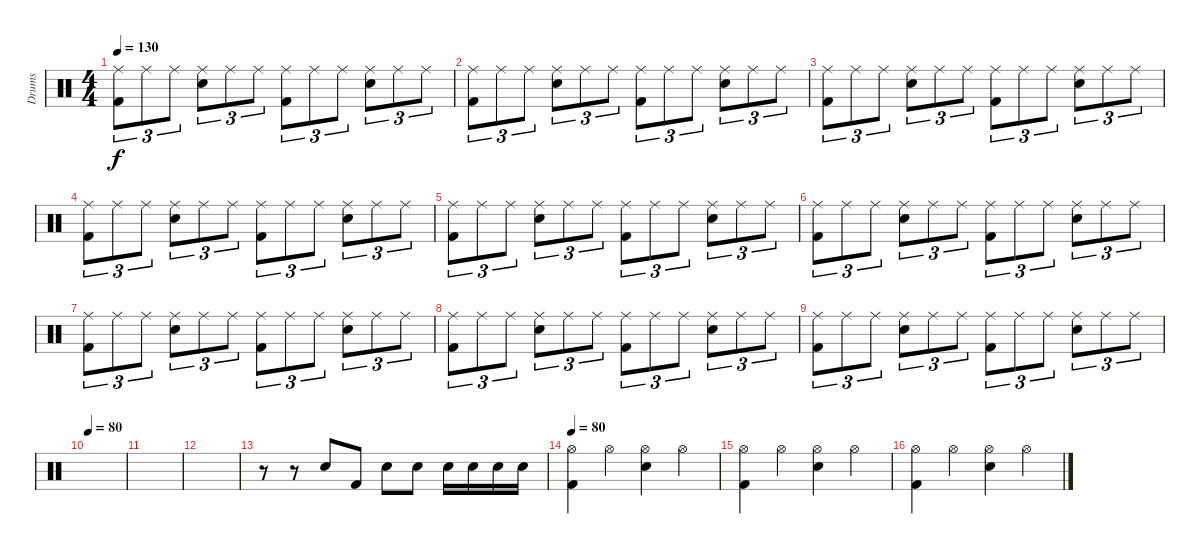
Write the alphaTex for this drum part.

\track ("Drums" "Drums") {instrument percussion}
\staff {score}
\articulation defaults
\ts (4 4)
\tempo 130
\clef neutral
\ks c
("Ride (middle)" "Kick (hit) 2").8{tu (3 2) dy f} "Ride (middle)".8{tu (3 2)} "Ride (middle)".8{tu (3 2)} ("Ride (middle)" "Electric Snare (hit)").8{tu (3 2)} "Ride (middle)".8{tu (3 2)} "Ride (middle)".8{tu (3 2)} ("Ride (middle)" "Kick (hit) 2").8{tu (3 2)} "Ride (middle)".8{tu (3 2)} "Ride (middle)".8{tu (3 2)} ("Ride (middle)" "Electric Snare (hit)").8{tu (3 2)} "Ride (middle)".8{tu (3 2)} "Ride (middle)".8{tu (3 2)} |
("Ride (middle)" "Kick (hit) 2").8{tu (3 2)} "Ride (middle)".8{tu (3 2)} "Ride (middle)".8{tu (3 2)} ("Ride (middle)" "Electric Snare (hit)").8{tu (3 2)} "Ride (middle)".8{tu (3 2)} "Ride (middle)".8{tu (3 2)} ("Ride (middle)" "Kick (hit) 2").8{tu (3 2)} "Ride (middle)".8{tu (3 2)} "Ride (middle)".8{tu (3 2)} ("Ride (middle)" "Electric Snare (hit)").8{tu (3 2)} "Ride (middle)".8{tu (3 2)} "Ride (middle)".8{tu (3 2)} |
("Ride (middle)" "Kick (hit) 2").8{tu (3 2)} "Ride (middle)".8{tu (3 2)} "Ride (middle)".8{tu (3 2)} ("Ride (middle)" "Electric Snare (hit)").8{tu (3 2)} "Ride (middle)".8{tu (3 2)} "Ride (middle)".8{tu (3 2)} ("Ride (middle)" "Kick (hit) 2").8{tu (3 2)} "Ride (middle)".8{tu (3 2)} "Ride (middle)".8{tu (3 2)} ("Ride (middle)" "Electric Snare (hit)").8{tu (3 2)} "Ride (middle)".8{tu (3 2)} "Ride (middle)".8{tu (3 2)} |
("Ride (middle)" "Kick (hit) 2").8{tu (3 2)} "Ride (middle)".8{tu (3 2)} "Ride (middle)".8{tu (3 2)} ("Ride (middle)" "Electric Snare (hit)").8{tu (3 2)} "Ride (middle)".8{tu (3 2)} "Ride (middle)".8{tu (3 2)} ("Ride (middle)" "Kick (hit) 2").8{tu (3 2)} "Ride (middle)".8{tu (3 2)} "Ride (middle)".8{tu (3 2)} ("Ride (middle)" "Electric Snare (hit)").8{tu (3 2)} "Ride (middle)".8{tu (3 2)} "Ride (middle)".8{tu (3 2)} |
("Ride (middle)" "Kick (hit) 2").8{tu (3 2)} "Ride (middle)".8{tu (3 2)} "Ride (middle)".8{tu (3 2)} ("Ride (middle)" "Electric Snare (hit)").8{tu (3 2)} "Ride (middle)".8{tu (3 2)} "Ride (middle)".8{tu (3 2)} ("Ride (middle)" "Kick (hit) 2").8{tu (3 2)} "Ride (middle)".8{tu (3 2)} "Ride (middle)".8{tu (3 2)} ("Ride (middle)" "Electric Snare (hit)").8{tu (3 2)} "Ride (middle)".8{tu (3 2)} "Ride (middle)".8{tu (3 2)} |
("Ride (middle)" "Kick (hit) 2").8{tu (3 2)} "Ride (middle)".8{tu (3 2)} "Ride (middle)".8{tu (3 2)} ("Ride (middle)" "Electric Snare (hit)").8{tu (3 2)} "Ride (middle)".8{tu (3 2)} "Ride (middle)".8{tu (3 2)} ("Ride (middle)" "Kick (hit) 2").8{tu (3 2)} "Ride (middle)".8{tu (3 2)} "Ride (middle)".8{tu (3 2)} ("Ride (middle)" "Electric Snare (hit)").8{tu (3 2)} "Ride (middle)".8{tu (3 2)} "Ride (middle)".8{tu (3 2)} |
("Ride (middle)" "Kick (hit) 2").8{tu (3 2)} "Ride (middle)".8{tu (3 2)} "Ride (middle)".8{tu (3 2)} ("Ride (middle)" "Electric Snare (hit)").8{tu (3 2)} "Ride (middle)".8{tu (3 2)} "Ride (middle)".8{tu (3 2)} ("Ride (middle)" "Kick (hit) 2").8{tu (3 2)} "Ride (middle)".8{tu (3 2)} "Ride (middle)".8{tu (3 2)} ("Ride (middle)" "Electric Snare (hit)").8{tu (3 2)} "Ride (middle)".8{tu (3 2)} "Ride (middle)".8{tu (3 2)} |
("Ride (middle)" "Kick (hit) 2").8{tu (3 2)} "Ride (middle)".8{tu (3 2)} "Ride (middle)".8{tu (3 2)} ("Ride (middle)" "Electric Snare (hit)").8{tu (3 2)} "Ride (middle)".8{tu (3 2)} "Ride (middle)".8{tu (3 2)} ("Ride (middle)" "Kick (hit) 2").8{tu (3 2)} "Ride (middle)".8{tu (3 2)} "Ride (middle)".8{tu (3 2)} ("Ride (middle)" "Electric Snare (hit)").8{tu (3 2)} "Ride (middle)".8{tu (3 2)} "Ride (middle)".8{tu (3 2)} |
("Ride (middle)" "Kick (hit) 2").8{tu (3 2)} "Ride (middle)".8{tu (3 2)} "Ride (middle)".8{tu (3 2)} ("Ride (middle)" "Electric Snare (hit)").8{tu (3 2)} "Ride (middle)".8{tu (3 2)} "Ride (middle)".8{tu (3 2)} ("Ride (middle)" "Kick (hit) 2").8{tu (3 2)} "Ride (middle)".8{tu (3 2)} "Ride (middle)".8{tu (3 2)} ("Ride (middle)" "Electric Snare (hit)").8{tu (3 2)} "Ride (middle)".8{tu (3 2)} "Ride (middle)".8{tu (3 2)} |
\tempo 80
|
|
|
r.8 r.8 "Electric Snare (hit)".8 "Kick (hit) 2".8 "Electric Snare (hit)".8 "Electric Snare (hit)".8 "Electric Snare (hit)".16 "Electric Snare (hit)".16 "Electric Snare (hit)".16 "Electric Snare (hit)".16 |
\tempo 80
("Hi-Hat (open)" "Kick (hit) 2").4 "Hi-Hat (open)".4 ("Hi-Hat (open)" "Electric Snare (hit)").4 "Hi-Hat (open)".4 |
("Hi-Hat (open)" "Kick (hit) 2").4 "Hi-Hat (open)".4 ("Hi-Hat (open)" "Electric Snare (hit)").4 "Hi-Hat (open)".4 |
("Hi-Hat (open)" "Kick (hit) 2").4 "Hi-Hat (open)".4 ("Hi-Hat (open)" "Electric Snare (hit)").4 "Hi-Hat (open)".4
